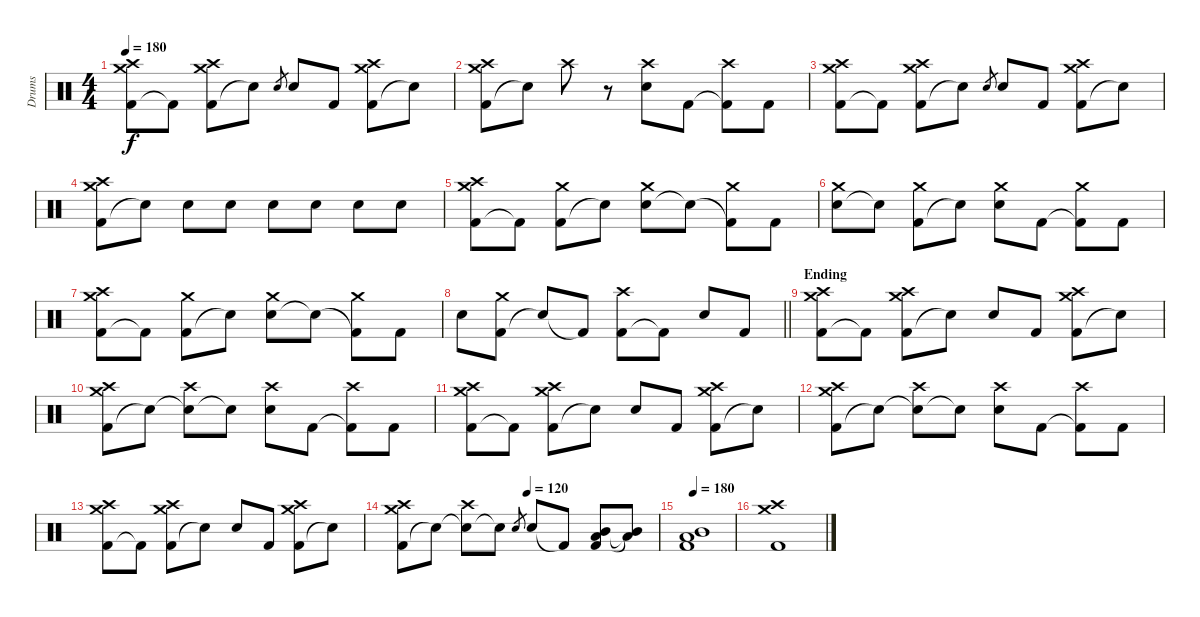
\track ("Drums" "Drums") {instrument percussion}
\staff {score}
\articulation defaults
\ts (4 4)
\tempo 180
\clef neutral
\ks c
("Kick (hit) 2" "Crash medium (hit)" "Crash high (hit)").8{dy f} "Kick (hit) 2"{t}.8 ("Kick (hit) 2" "Crash medium (hit)" "Crash high (hit)").8 "Electric Snare (hit)"{t}.8 "Electric Snare (hit)".8{gr} "Electric Snare (hit)".8 "Kick (hit) 2".8 ("Kick (hit) 2" "Crash medium (hit)" "Crash high (hit)").8 "Snare (hit)"{t}.8 |
("Kick (hit) 2" "Crash medium (hit)" "Crash high (hit)").8 "Snare (hit)"{t}.8 "Crash high (hit)".8 r.8 ("Electric Snare (hit)" "Crash high (hit)").8 "Kick (hit) 2".8 ("Kick (hit) 2"{t} "Crash high (hit)").8 "Kick (hit) 2".8 |
("Kick (hit) 2" "Crash medium (hit)" "Crash high (hit)").8 "Kick (hit) 2"{t}.8 ("Kick (hit) 2" "Crash medium (hit)" "Crash high (hit)").8 "Electric Snare (hit)"{t}.8 "Electric Snare (hit)".8{gr} "Electric Snare (hit)".8 "Kick (hit) 2".8 ("Kick (hit) 2" "Crash medium (hit)" "Crash high (hit)").8 "Snare (hit)"{t}.8 |
("Kick (hit) 2" "Crash medium (hit)" "Crash high (hit)").8 "Snare (hit)"{t}.8 "Electric Snare (hit)".8 "Electric Snare (hit)".8 "Electric Snare (hit)".8 "Electric Snare (hit)".8 "Electric Snare (hit)".8 "Electric Snare (hit)".8 |
("Kick (hit) 2" "Crash medium (hit)" "Crash high (hit)").8 "Kick (hit) 2"{t}.8 ("Kick (hit) 2" "Crash medium (hit)").8 "Snare (hit)"{t}.8 ("Electric Snare (hit)" "Crash medium (hit)").8 "Snare (hit)"{t}.8 ("Kick (hit) 2"{t} "Crash medium (hit)").8 "Kick (hit) 2".8 |
("Electric Snare (hit)" "Crash medium (hit)").8 "Snare (hit)"{t}.8 ("Kick (hit) 2" "Crash medium (hit)").8 "Snare (hit)"{t}.8 ("Electric Snare (hit)" "Crash medium (hit)").8 "Kick (hit) 2".8 ("Kick (hit) 2"{t} "Crash medium (hit)").8 "Kick (hit) 2".8 |
("Kick (hit) 2" "Crash medium (hit)" "Crash high (hit)").8 "Kick (hit) 2"{t}.8 ("Kick (hit) 2" "Crash medium (hit)").8 "Snare (hit)"{t}.8 ("Electric Snare (hit)" "Crash medium (hit)").8 "Snare (hit)"{t}.8 ("Kick (hit) 2"{t} "Crash medium (hit)").8 "Kick (hit) 2".8 |
\barLineRight lightlight "Electric Snare (hit)".8
("Kick (hit) 2" "Crash medium (hit)").8 "Snare (hit)"{t}.8 "Kick (hit) 2"{t}.8 ("Kick (hit) 2" "Crash high (hit)").8 "Kick (hit) 2"{t}.8 "Electric Snare (hit)".8 "Kick (hit) 2".8 |
\section ("" "Ending")
("Kick (hit) 2" "Crash medium (hit)" "Crash high (hit)").8 "Kick (hit) 2"{t}.8 ("Kick (hit) 2" "Crash medium (hit)" "Crash high (hit)").8 "Snare (hit)"{t}.8 "Electric Snare (hit)".8 "Kick (hit) 2".8 ("Kick (hit) 2" "Crash medium (hit)" "Crash high (hit)").8 "Snare (hit)"{t}.8 |
("Kick (hit) 2" "Crash medium (hit)" "Crash high (hit)").8 "Snare (hit)"{t}.8 ("Snare (hit)"{t} "Crash high (hit)").8 "Snare (hit)"{t}.8 ("Electric Snare (hit)" "Crash high (hit)").8 "Kick (hit) 2".8 ("Kick (hit) 2"{t} "Crash high (hit)").8 "Kick (hit) 2".8 |
("Kick (hit) 2" "Crash medium (hit)" "Crash high (hit)").8 "Kick (hit) 2"{t}.8 ("Kick (hit) 2" "Crash medium (hit)" "Crash high (hit)").8 "Snare (hit)"{t}.8 "Electric Snare (hit)".8 "Kick (hit) 2".8 ("Kick (hit) 2" "Crash medium (hit)" "Crash high (hit)").8 "Snare (hit)"{t}.8 |
("Kick (hit) 2" "Crash medium (hit)" "Crash high (hit)").8 "Snare (hit)"{t}.8 ("Snare (hit)"{t} "Crash high (hit)").8 "Snare (hit)"{t}.8 ("Electric Snare (hit)" "Crash high (hit)").8 "Kick (hit) 2".8 ("Kick (hit) 2"{t} "Crash high (hit)").8 "Kick (hit) 2".8 |
("Kick (hit) 2" "Crash medium (hit)" "Crash high (hit)").8 "Kick (hit) 2"{t}.8 ("Kick (hit) 2" "Crash medium (hit)" "Crash high (hit)").8 "Snare (hit)"{t}.8 "Electric Snare (hit)".8 "Kick (hit) 2".8 ("Kick (hit) 2" "Crash medium (hit)" "Crash high (hit)").8 "Snare (hit)"{t}.8 |
\tempo (120 0.5)
("Kick (hit) 2" "Crash medium (hit)" "Crash high (hit)").8 "Snare (hit)"{t}.8 ("Snare (hit)"{t} "Crash high (hit)").8 "Snare (hit)"{t}.8 "Electric Snare (hit)".8{gr} "Electric Snare (hit)".8 "Kick (hit) 2"{t}.8 ("Kick (hit) 2" "Mid Tom (hit)" "Low Floor Tom (hit)").8 ("Mid Tom (hit)"{t} "Low Floor Tom (hit)"{t}).8 |
\tempo 180
("Kick (hit) 2" "Mid Tom (hit)" "Low Floor Tom (hit)").1 |
("Kick (hit) 2" "Crash medium (hit)" "Crash high (hit)").1
